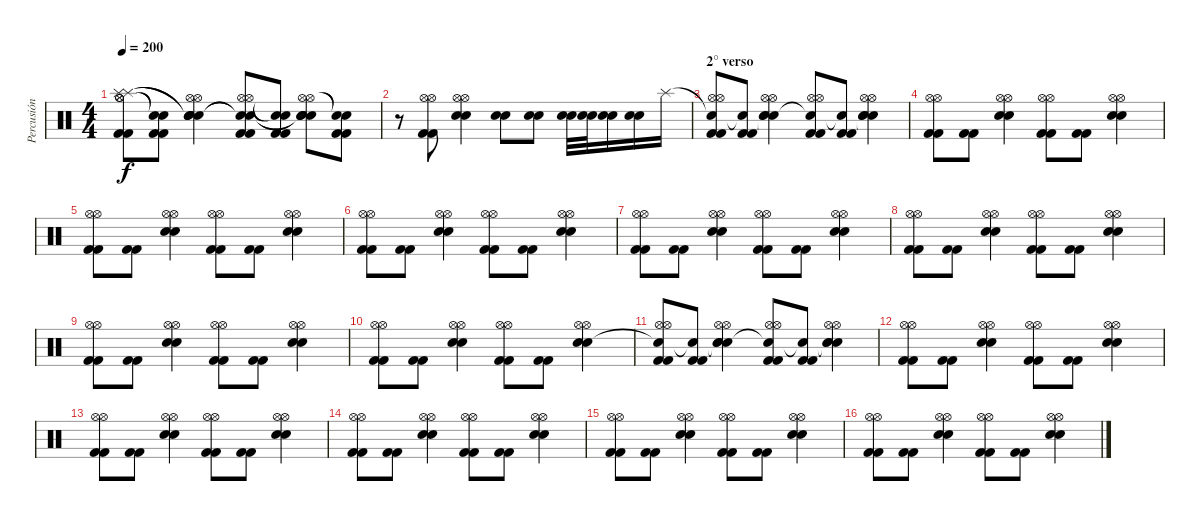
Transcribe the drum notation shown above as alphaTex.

\track ("Percusión" "Percusión") {instrument percussion}
\staff {score}
\articulation defaults
\ts (4 4)
\tempo 200
\clef neutral
\ks c
("Kick (hit) 2" "Kick (hit) 2" "Hi-Hat (open)" "Hi-Hat (open)" "Splash (hit)" "Splash (hit)").8{dy f} ("Kick (hit) 2" "Kick (hit) 2" "Snare (hit)"{t} "Snare (hit)"{t}).8 ("Snare (hit) 2" "Snare (hit) 2" "Hi-Hat (open)" "Hi-Hat (open)" "Snare (hit)"{t} "Snare (hit)"{t}).4 ("Kick (hit) 2" "Kick (hit) 2" "Hi-Hat (open)" "Hi-Hat (open)" "Snare (hit)"{t} "Snare (hit)"{t}).8 ("Kick (hit) 2" "Kick (hit) 2" "Snare (hit)"{t} "Snare (hit)"{t}).8 ("Snare (hit) 2" "Snare (hit) 2" "Hi-Hat (open)" "Hi-Hat (open)" "Snare (hit)"{t} "Snare (hit)"{t}).8 ("Kick (hit) 2" "Kick (hit) 2" "Snare (hit)"{t} "Snare (hit)"{t}).8 |
r.8 ("Kick (hit) 2" "Kick (hit) 2" "Hi-Hat (open)" "Hi-Hat (open)").8 ("Snare (hit) 2" "Snare (hit) 2" "Hi-Hat (open)" "Hi-Hat (open)").4 ("Snare (hit) 2" "Snare (hit) 2").8 ("Snare (hit) 2" "Snare (hit) 2").8 ("Snare (hit) 2" "Snare (hit) 2").32 ("Snare (hit) 2" "Snare (hit) 2").32 ("Snare (hit) 2" "Snare (hit) 2").16 ("Snare (hit) 2" "Snare (hit) 2").16 "Splash (hit)".16 |
\section ("" "2° verso")
("Snare (hit)"{t} "Kick (hit) 2" "Kick (hit) 2" "Hi-Hat (open)" "Hi-Hat (open)").8 ("Snare (hit)"{t} "Kick (hit) 2" "Kick (hit) 2").8 ("Snare (hit)"{t} "Snare (hit) 2" "Snare (hit) 2" "Hi-Hat (open)" "Hi-Hat (open)").4 ("Snare (hit)"{t} "Kick (hit) 2" "Kick (hit) 2" "Hi-Hat (open)" "Hi-Hat (open)").8 ("Snare (hit)"{t} "Kick (hit) 2" "Kick (hit) 2").8 ("Snare (hit)"{t} "Snare (hit) 2" "Snare (hit) 2" "Hi-Hat (open)" "Hi-Hat (open)").4 |
("Kick (hit) 2" "Kick (hit) 2" "Hi-Hat (open)" "Hi-Hat (open)").8 ("Kick (hit) 2" "Kick (hit) 2").8 ("Snare (hit) 2" "Snare (hit) 2" "Hi-Hat (open)" "Hi-Hat (open)").4 ("Kick (hit) 2" "Kick (hit) 2" "Hi-Hat (open)" "Hi-Hat (open)").8 ("Kick (hit) 2" "Kick (hit) 2").8 ("Snare (hit) 2" "Snare (hit) 2" "Hi-Hat (open)" "Hi-Hat (open)").4 |
("Kick (hit) 2" "Kick (hit) 2" "Hi-Hat (open)" "Hi-Hat (open)").8 ("Kick (hit) 2" "Kick (hit) 2").8 ("Snare (hit) 2" "Snare (hit) 2" "Hi-Hat (open)" "Hi-Hat (open)").4 ("Kick (hit) 2" "Kick (hit) 2" "Hi-Hat (open)" "Hi-Hat (open)").8 ("Kick (hit) 2" "Kick (hit) 2").8 ("Snare (hit) 2" "Snare (hit) 2" "Hi-Hat (open)" "Hi-Hat (open)").4 |
("Kick (hit) 2" "Kick (hit) 2" "Hi-Hat (open)" "Hi-Hat (open)").8 ("Kick (hit) 2" "Kick (hit) 2").8 ("Snare (hit) 2" "Snare (hit) 2" "Hi-Hat (open)" "Hi-Hat (open)").4 ("Kick (hit) 2" "Kick (hit) 2" "Hi-Hat (open)" "Hi-Hat (open)").8 ("Kick (hit) 2" "Kick (hit) 2").8 ("Snare (hit) 2" "Snare (hit) 2" "Hi-Hat (open)" "Hi-Hat (open)").4 |
("Kick (hit) 2" "Kick (hit) 2" "Hi-Hat (open)" "Hi-Hat (open)").8 ("Kick (hit) 2" "Kick (hit) 2").8 ("Snare (hit) 2" "Snare (hit) 2" "Hi-Hat (open)" "Hi-Hat (open)").4 ("Kick (hit) 2" "Kick (hit) 2" "Hi-Hat (open)" "Hi-Hat (open)").8 ("Kick (hit) 2" "Kick (hit) 2").8 ("Snare (hit) 2" "Snare (hit) 2" "Hi-Hat (open)" "Hi-Hat (open)").4 |
("Kick (hit) 2" "Kick (hit) 2" "Hi-Hat (open)" "Hi-Hat (open)").8 ("Kick (hit) 2" "Kick (hit) 2").8 ("Snare (hit) 2" "Snare (hit) 2" "Hi-Hat (open)" "Hi-Hat (open)").4 ("Kick (hit) 2" "Kick (hit) 2" "Hi-Hat (open)" "Hi-Hat (open)").8 ("Kick (hit) 2" "Kick (hit) 2").8 ("Snare (hit) 2" "Snare (hit) 2" "Hi-Hat (open)" "Hi-Hat (open)").4 |
("Kick (hit) 2" "Kick (hit) 2" "Hi-Hat (open)" "Hi-Hat (open)").8 ("Kick (hit) 2" "Kick (hit) 2").8 ("Snare (hit) 2" "Snare (hit) 2" "Hi-Hat (open)" "Hi-Hat (open)").4 ("Kick (hit) 2" "Kick (hit) 2" "Hi-Hat (open)" "Hi-Hat (open)").8 ("Kick (hit) 2" "Kick (hit) 2").8 ("Snare (hit) 2" "Snare (hit) 2" "Hi-Hat (open)" "Hi-Hat (open)").4 |
("Kick (hit) 2" "Kick (hit) 2" "Hi-Hat (open)" "Hi-Hat (open)").8 ("Kick (hit) 2" "Kick (hit) 2").8 ("Snare (hit) 2" "Snare (hit) 2" "Hi-Hat (open)" "Hi-Hat (open)").4 ("Kick (hit) 2" "Kick (hit) 2" "Hi-Hat (open)" "Hi-Hat (open)").8 ("Kick (hit) 2" "Kick (hit) 2").8 ("Snare (hit) 2" "Snare (hit) 2" "Hi-Hat (open)" "Hi-Hat (open)").4 |
("Snare (hit)"{t} "Kick (hit) 2" "Kick (hit) 2" "Hi-Hat (open)" "Hi-Hat (open)").8 ("Snare (hit)"{t} "Kick (hit) 2" "Kick (hit) 2").8 ("Snare (hit)"{t} "Snare (hit) 2" "Snare (hit) 2" "Hi-Hat (open)" "Hi-Hat (open)").4 ("Snare (hit)"{t} "Kick (hit) 2" "Kick (hit) 2" "Hi-Hat (open)" "Hi-Hat (open)").8 ("Snare (hit)"{t} "Kick (hit) 2" "Kick (hit) 2").8 ("Snare (hit)"{t} "Snare (hit) 2" "Snare (hit) 2" "Hi-Hat (open)" "Hi-Hat (open)").4 |
("Kick (hit) 2" "Kick (hit) 2" "Hi-Hat (open)" "Hi-Hat (open)").8 ("Kick (hit) 2" "Kick (hit) 2").8 ("Snare (hit) 2" "Snare (hit) 2" "Hi-Hat (open)" "Hi-Hat (open)").4 ("Kick (hit) 2" "Kick (hit) 2" "Hi-Hat (open)" "Hi-Hat (open)").8 ("Kick (hit) 2" "Kick (hit) 2").8 ("Snare (hit) 2" "Snare (hit) 2" "Hi-Hat (open)" "Hi-Hat (open)").4 |
("Kick (hit) 2" "Kick (hit) 2" "Hi-Hat (open)" "Hi-Hat (open)").8 ("Kick (hit) 2" "Kick (hit) 2").8 ("Snare (hit) 2" "Snare (hit) 2" "Hi-Hat (open)" "Hi-Hat (open)").4 ("Kick (hit) 2" "Kick (hit) 2" "Hi-Hat (open)" "Hi-Hat (open)").8 ("Kick (hit) 2" "Kick (hit) 2").8 ("Snare (hit) 2" "Snare (hit) 2" "Hi-Hat (open)" "Hi-Hat (open)").4 |
("Kick (hit) 2" "Kick (hit) 2" "Hi-Hat (open)" "Hi-Hat (open)").8 ("Kick (hit) 2" "Kick (hit) 2").8 ("Snare (hit) 2" "Snare (hit) 2" "Hi-Hat (open)" "Hi-Hat (open)").4 ("Kick (hit) 2" "Kick (hit) 2" "Hi-Hat (open)" "Hi-Hat (open)").8 ("Kick (hit) 2" "Kick (hit) 2").8 ("Snare (hit) 2" "Snare (hit) 2" "Hi-Hat (open)" "Hi-Hat (open)").4 |
("Kick (hit) 2" "Kick (hit) 2" "Hi-Hat (open)" "Hi-Hat (open)").8 ("Kick (hit) 2" "Kick (hit) 2").8 ("Snare (hit) 2" "Snare (hit) 2" "Hi-Hat (open)" "Hi-Hat (open)").4 ("Kick (hit) 2" "Kick (hit) 2" "Hi-Hat (open)" "Hi-Hat (open)").8 ("Kick (hit) 2" "Kick (hit) 2").8 ("Snare (hit) 2" "Snare (hit) 2" "Hi-Hat (open)" "Hi-Hat (open)").4 |
("Kick (hit) 2" "Kick (hit) 2" "Hi-Hat (open)" "Hi-Hat (open)").8 ("Kick (hit) 2" "Kick (hit) 2").8 ("Snare (hit) 2" "Snare (hit) 2" "Hi-Hat (open)" "Hi-Hat (open)").4 ("Kick (hit) 2" "Kick (hit) 2" "Hi-Hat (open)" "Hi-Hat (open)").8 ("Kick (hit) 2" "Kick (hit) 2").8 ("Snare (hit) 2" "Snare (hit) 2" "Hi-Hat (open)" "Hi-Hat (open)").4
